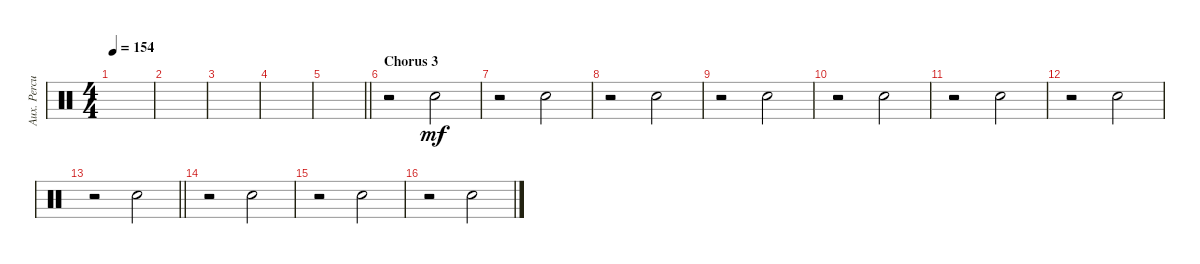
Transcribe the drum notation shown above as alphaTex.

\track ("Aux. Percussion" "Aux. Percu") {instrument percussion}
\staff {score}
\articulation defaults
\ts (4 4)
\tempo 154
\clef neutral
\ks c
|
|
|
|
\barLineRight lightlight
|
\section ("" "Chorus 3")
r.2 "Hand Clap (hit)".2{dy mf} |
r.2 "Hand Clap (hit)".2 |
r.2 "Hand Clap (hit)".2 |
r.2 "Hand Clap (hit)".2 |
r.2 "Hand Clap (hit)".2 |
r.2 "Hand Clap (hit)".2 |
r.2 "Hand Clap (hit)".2 |
\barLineRight lightlight
r.2 "Hand Clap (hit)".2 |
r.2 "Hand Clap (hit)".2 |
r.2 "Hand Clap (hit)".2 |
r.2 "Hand Clap (hit)".2
